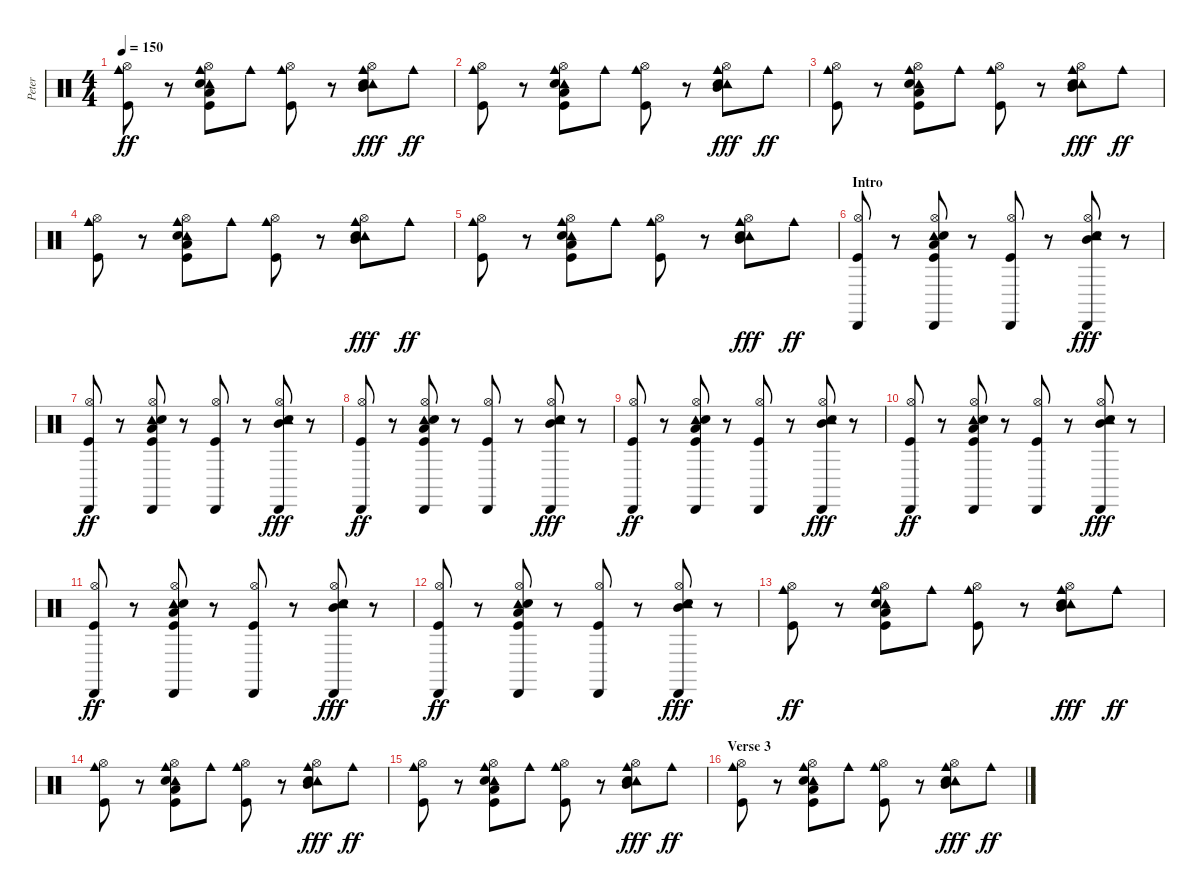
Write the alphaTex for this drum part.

\track ("Peter" "Peter") {instrument percussion}
\staff {score}
\articulation defaults
\ts (4 4)
\tempo 150
\clef neutral
\ks c
("Cowbell medium (hit)" "Hi-Hat (open)" "Kick (hit)").8{dy ff} r.8 ("Cowbell medium (hit)" "Tambourine (hit)" "Hi-Hat (open)" "Hand Clap (hit)" "Low Floor Tom (hit)" "Kick (hit)").8 "Cowbell medium (hit)".8 ("Cowbell medium (hit)" "Hi-Hat (open)" "Kick (hit)").8 r.8 ("Cowbell medium (hit)" "Tambourine (hit)" "Hi-Hat (open)" "Mid Tom (hit)" "Hand Clap (hit)").8{dy fff} "Cowbell medium (hit)".8{dy ff} |
("Cowbell medium (hit)" "Hi-Hat (open)" "Kick (hit)").8 r.8 ("Cowbell medium (hit)" "Tambourine (hit)" "Hi-Hat (open)" "Hand Clap (hit)" "Low Floor Tom (hit)" "Kick (hit)").8 "Cowbell medium (hit)".8 ("Cowbell medium (hit)" "Hi-Hat (open)" "Kick (hit)").8 r.8 ("Cowbell medium (hit)" "Tambourine (hit)" "Hi-Hat (open)" "Mid Tom (hit)" "Hand Clap (hit)").8{dy fff} "Cowbell medium (hit)".8{dy ff} |
("Cowbell medium (hit)" "Hi-Hat (open)" "Kick (hit)").8 r.8 ("Cowbell medium (hit)" "Tambourine (hit)" "Hi-Hat (open)" "Hand Clap (hit)" "Low Floor Tom (hit)" "Kick (hit)").8 "Cowbell medium (hit)".8 ("Cowbell medium (hit)" "Hi-Hat (open)" "Kick (hit)").8 r.8 ("Cowbell medium (hit)" "Tambourine (hit)" "Hi-Hat (open)" "Mid Tom (hit)" "Hand Clap (hit)").8{dy fff} "Cowbell medium (hit)".8{dy ff} |
("Cowbell medium (hit)" "Hi-Hat (open)" "Kick (hit)").8 r.8 ("Cowbell medium (hit)" "Tambourine (hit)" "Hi-Hat (open)" "Hand Clap (hit)" "Low Floor Tom (hit)" "Kick (hit)").8 "Cowbell medium (hit)".8 ("Cowbell medium (hit)" "Hi-Hat (open)" "Kick (hit)").8 r.8 ("Cowbell medium (hit)" "Tambourine (hit)" "Hi-Hat (open)" "Mid Tom (hit)" "Hand Clap (hit)").8{dy fff} "Cowbell medium (hit)".8{dy ff} |
("Cowbell medium (hit)" "Hi-Hat (open)" "Kick (hit)").8 r.8 ("Cowbell medium (hit)" "Tambourine (hit)" "Hi-Hat (open)" "Hand Clap (hit)" "Low Floor Tom (hit)" "Kick (hit)").8 "Cowbell medium (hit)".8 ("Cowbell medium (hit)" "Hi-Hat (open)" "Kick (hit)").8 r.8 ("Cowbell medium (hit)" "Tambourine (hit)" "Hi-Hat (open)" "Mid Tom (hit)" "Hand Clap (hit)").8{dy fff} "Cowbell medium (hit)".8{dy ff} |
\section ("" "Intro")
("Cabasa (hit)" "Hi-Hat (open)" "Kick (hit)").8 r.8 ("Cabasa (hit)" "Tambourine (hit)" "Hi-Hat (open)" "Hand Clap (hit)" "Low Floor Tom (hit)" "Kick (hit)").8 r.8 ("Cabasa (hit)" "Hi-Hat (open)" "Kick (hit)").8 r.8 ("Cabasa (hit)" "Tambourine (hit)" "Hi-Hat (open)" "Mid Tom (hit)" "Hand Clap (hit)").8{dy fff} r.8 |
("Cabasa (hit)" "Hi-Hat (open)" "Kick (hit)").8{dy ff} r.8 ("Cabasa (hit)" "Tambourine (hit)" "Hi-Hat (open)" "Hand Clap (hit)" "Low Floor Tom (hit)" "Kick (hit)").8 r.8 ("Cabasa (hit)" "Hi-Hat (open)" "Kick (hit)").8 r.8 ("Cabasa (hit)" "Tambourine (hit)" "Hi-Hat (open)" "Mid Tom (hit)" "Hand Clap (hit)").8{dy fff} r.8 |
("Cabasa (hit)" "Hi-Hat (open)" "Kick (hit)").8{dy ff} r.8 ("Cabasa (hit)" "Tambourine (hit)" "Hi-Hat (open)" "Hand Clap (hit)" "Low Floor Tom (hit)" "Kick (hit)").8 r.8 ("Cabasa (hit)" "Hi-Hat (open)" "Kick (hit)").8 r.8 ("Cabasa (hit)" "Tambourine (hit)" "Hi-Hat (open)" "Mid Tom (hit)" "Hand Clap (hit)").8{dy fff} r.8 |
("Cabasa (hit)" "Hi-Hat (open)" "Kick (hit)").8{dy ff} r.8 ("Cabasa (hit)" "Tambourine (hit)" "Hi-Hat (open)" "Hand Clap (hit)" "Low Floor Tom (hit)" "Kick (hit)").8 r.8 ("Cabasa (hit)" "Hi-Hat (open)" "Kick (hit)").8 r.8 ("Cabasa (hit)" "Tambourine (hit)" "Hi-Hat (open)" "Mid Tom (hit)" "Hand Clap (hit)").8{dy fff} r.8 |
("Cabasa (hit)" "Hi-Hat (open)" "Kick (hit)").8{dy ff} r.8 ("Cabasa (hit)" "Tambourine (hit)" "Hi-Hat (open)" "Hand Clap (hit)" "Low Floor Tom (hit)" "Kick (hit)").8 r.8 ("Cabasa (hit)" "Hi-Hat (open)" "Kick (hit)").8 r.8 ("Cabasa (hit)" "Tambourine (hit)" "Hi-Hat (open)" "Mid Tom (hit)" "Hand Clap (hit)").8{dy fff} r.8 |
("Cabasa (hit)" "Hi-Hat (open)" "Kick (hit)").8{dy ff} r.8 ("Cabasa (hit)" "Tambourine (hit)" "Hi-Hat (open)" "Hand Clap (hit)" "Low Floor Tom (hit)" "Kick (hit)").8 r.8 ("Cabasa (hit)" "Hi-Hat (open)" "Kick (hit)").8 r.8 ("Cabasa (hit)" "Tambourine (hit)" "Hi-Hat (open)" "Mid Tom (hit)" "Hand Clap (hit)").8{dy fff} r.8 |
("Cabasa (hit)" "Hi-Hat (open)" "Kick (hit)").8{dy ff} r.8 ("Cabasa (hit)" "Tambourine (hit)" "Hi-Hat (open)" "Hand Clap (hit)" "Low Floor Tom (hit)" "Kick (hit)").8 r.8 ("Cabasa (hit)" "Hi-Hat (open)" "Kick (hit)").8 r.8 ("Cabasa (hit)" "Tambourine (hit)" "Hi-Hat (open)" "Mid Tom (hit)" "Hand Clap (hit)").8{dy fff} r.8 |
("Cowbell medium (hit)" "Hi-Hat (open)" "Kick (hit)").8{dy ff} r.8 ("Cowbell medium (hit)" "Tambourine (hit)" "Hi-Hat (open)" "Hand Clap (hit)" "Low Floor Tom (hit)" "Kick (hit)").8 "Cowbell medium (hit)".8 ("Cowbell medium (hit)" "Hi-Hat (open)" "Kick (hit)").8 r.8 ("Cowbell medium (hit)" "Tambourine (hit)" "Hi-Hat (open)" "Mid Tom (hit)" "Hand Clap (hit)").8{dy fff} "Cowbell medium (hit)".8{dy ff} |
("Cowbell medium (hit)" "Hi-Hat (open)" "Kick (hit)").8 r.8 ("Cowbell medium (hit)" "Tambourine (hit)" "Hi-Hat (open)" "Hand Clap (hit)" "Low Floor Tom (hit)" "Kick (hit)").8 "Cowbell medium (hit)".8 ("Cowbell medium (hit)" "Hi-Hat (open)" "Kick (hit)").8 r.8 ("Cowbell medium (hit)" "Tambourine (hit)" "Hi-Hat (open)" "Mid Tom (hit)" "Hand Clap (hit)").8{dy fff} "Cowbell medium (hit)".8{dy ff} |
("Cowbell medium (hit)" "Hi-Hat (open)" "Kick (hit)").8 r.8 ("Cowbell medium (hit)" "Tambourine (hit)" "Hi-Hat (open)" "Hand Clap (hit)" "Low Floor Tom (hit)" "Kick (hit)").8 "Cowbell medium (hit)".8 ("Cowbell medium (hit)" "Hi-Hat (open)" "Kick (hit)").8 r.8 ("Cowbell medium (hit)" "Tambourine (hit)" "Hi-Hat (open)" "Mid Tom (hit)" "Hand Clap (hit)").8{dy fff} "Cowbell medium (hit)".8{dy ff} |
\section ("" "Verse 3")
("Cowbell medium (hit)" "Hi-Hat (open)" "Kick (hit)").8 r.8 ("Cowbell medium (hit)" "Tambourine (hit)" "Hi-Hat (open)" "Hand Clap (hit)" "Low Floor Tom (hit)" "Kick (hit)").8 "Cowbell medium (hit)".8 ("Cowbell medium (hit)" "Hi-Hat (open)" "Kick (hit)").8 r.8 ("Cowbell medium (hit)" "Tambourine (hit)" "Hi-Hat (open)" "Mid Tom (hit)" "Hand Clap (hit)").8{dy fff} "Cowbell medium (hit)".8{dy ff}
